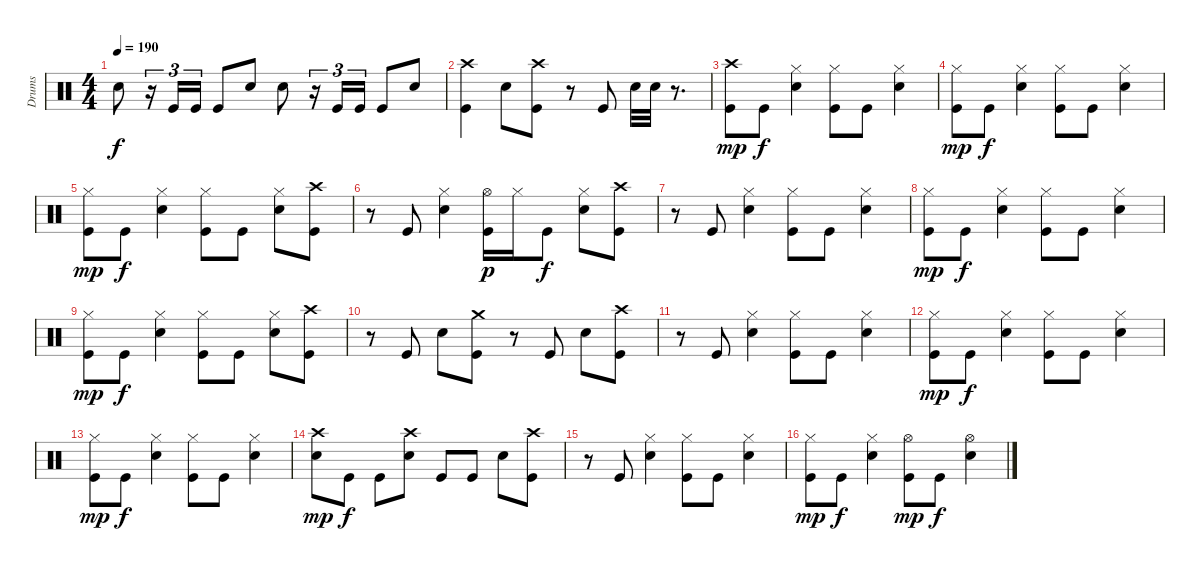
\track ("Drums" "Drums") {instrument percussion}
\staff {score}
\articulation defaults
\ts (4 4)
\tempo 190
\clef neutral
\ks c "Snare (hit) 2".8{dy f}
r.16{tu (3 2)} "Kick (hit)".16{tu (3 2)} "Kick (hit)".16{tu (3 2)} "Kick (hit)".8 "Snare (hit) 2".8 "Snare (hit) 2".8 r.16{tu (3 2)} "Kick (hit)".16{tu (3 2)} "Kick (hit)".16{tu (3 2)} "Kick (hit)".8 "Snare (hit) 2".8 |
("Crash high (hit)" "Kick (hit)").4 "Snare (hit) 2".8 ("Crash high (hit)" "Kick (hit)").8 r.8 "Kick (hit)".8 "Snare (hit) 2".32 "Snare (hit) 2".32 r.8{d} |
("Crash high (hit)" "Kick (hit)").8{dy mp} "Kick (hit)".8{dy f} ("Hi-Hat (closed)" "Snare (hit) 2").4 ("Hi-Hat (closed)" "Kick (hit)").8 "Kick (hit)".8 ("Hi-Hat (closed)" "Snare (hit) 2").4 |
("Hi-Hat (closed)" "Kick (hit)").8{dy mp} "Kick (hit)".8{dy f} ("Hi-Hat (closed)" "Snare (hit) 2").4 ("Hi-Hat (closed)" "Kick (hit)").8 "Kick (hit)".8 ("Hi-Hat (closed)" "Snare (hit) 2").4 |
("Hi-Hat (closed)" "Kick (hit)").8{dy mp} "Kick (hit)".8{dy f} ("Hi-Hat (closed)" "Snare (hit) 2").4 ("Hi-Hat (closed)" "Kick (hit)").8 "Kick (hit)".8 ("Hi-Hat (closed)" "Snare (hit) 2").8 ("Crash high (hit)" "Kick (hit)").8 |
r.8 "Kick (hit)".8 ("Hi-Hat (closed)" "Snare (hit) 2").4 ("Hi-Hat (open)" "Kick (hit)").16{dy p} "Hi-Hat (closed)".16 "Kick (hit)".8{dy f} ("Hi-Hat (closed)" "Snare (hit) 2").8 ("Crash high (hit)" "Kick (hit)").8 |
r.8 "Kick (hit)".8 ("Hi-Hat (closed)" "Snare (hit) 2").4 ("Hi-Hat (closed)" "Kick (hit)").8 "Kick (hit)".8 ("Hi-Hat (closed)" "Snare (hit) 2").4 |
("Hi-Hat (closed)" "Kick (hit)").8{dy mp} "Kick (hit)".8{dy f} ("Hi-Hat (closed)" "Snare (hit) 2").4 ("Hi-Hat (closed)" "Kick (hit)").8 "Kick (hit)".8 ("Hi-Hat (closed)" "Snare (hit) 2").4 |
("Hi-Hat (closed)" "Kick (hit)").8{dy mp} "Kick (hit)".8{dy f} ("Hi-Hat (closed)" "Snare (hit) 2").4 ("Hi-Hat (closed)" "Kick (hit)").8 "Kick (hit)".8 ("Hi-Hat (closed)" "Snare (hit) 2").8 ("Crash high (hit)" "Kick (hit)").8 |
r.8 "Kick (hit)".8 "Snare (hit) 2".8 ("Crash medium (hit)" "Kick (hit)").8 r.8 "Kick (hit)".8 "Snare (hit) 2".8 ("Crash high (hit)" "Kick (hit)").8 |
r.8 "Kick (hit)".8 ("Hi-Hat (closed)" "Snare (hit) 2").4 ("Hi-Hat (closed)" "Kick (hit)").8 "Kick (hit)".8 ("Hi-Hat (closed)" "Snare (hit) 2").4 |
("Hi-Hat (closed)" "Kick (hit)").8{dy mp} "Kick (hit)".8{dy f} ("Hi-Hat (closed)" "Snare (hit) 2").4 ("Hi-Hat (closed)" "Kick (hit)").8 "Kick (hit)".8 ("Hi-Hat (closed)" "Snare (hit) 2").4 |
("Hi-Hat (closed)" "Kick (hit)").8{dy mp} "Kick (hit)".8{dy f} ("Hi-Hat (closed)" "Snare (hit) 2").4 ("Hi-Hat (closed)" "Kick (hit)").8 "Kick (hit)".8 ("Hi-Hat (closed)" "Snare (hit) 2").4 |
("Crash high (hit)" "Snare (hit) 2").8{dy mp} "Kick (hit)".8{dy f} "Kick (hit)".8 ("Crash high (hit)" "Snare (hit) 2").8 "Kick (hit)".8 "Kick (hit)".8 "Snare (hit) 2".8 ("Crash high (hit)" "Kick (hit)").8 |
r.8 "Kick (hit)".8 ("Hi-Hat (closed)" "Snare (hit) 2").4 ("Hi-Hat (closed)" "Kick (hit)").8 "Kick (hit)".8 ("Hi-Hat (closed)" "Snare (hit) 2").4 |
("Hi-Hat (closed)" "Kick (hit)").8{dy mp} "Kick (hit)".8{dy f} ("Hi-Hat (closed)" "Snare (hit) 2").4 ("Hi-Hat (open)" "Kick (hit)").8{dy mp} "Kick (hit)".8{dy f} ("Hi-Hat (open)" "Snare (hit) 2").4
